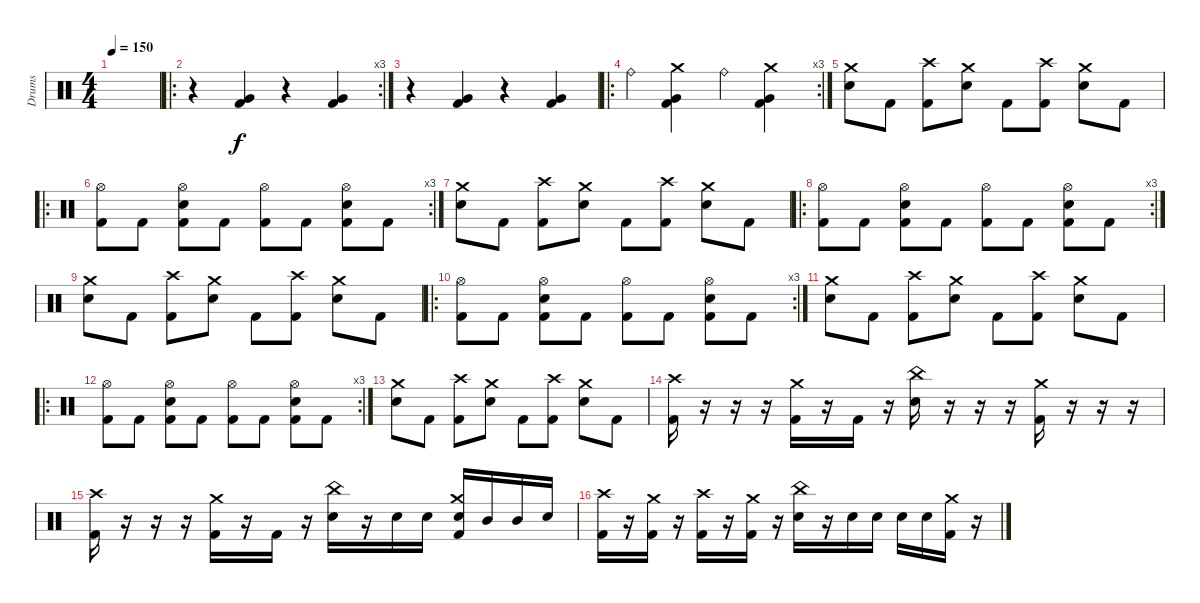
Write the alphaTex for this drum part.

\track ("Drums" "Drums") {instrument percussion}
\staff {score}
\articulation defaults
\ts (4 4)
\tempo 150
\clef neutral
\ks c
|
\ro
\rc 3
r.4 ("Very Low Tom (hit)" "Kick (hit) 2").4 r.4 ("Very Low Tom (hit)" "Kick (hit) 2").4 |
r.4 ("Very Low Tom (hit)" "Kick (hit) 2").4 r.4 ("Very Low Tom (hit)" "Kick (hit) 2").4 |
\ro
\rc 3 "Ride (bell)".4
("Crash medium (hit)" "Very Low Tom (hit)" "Kick (hit) 2").4 "Ride (bell)".4 ("Crash medium (hit)" "Very Low Tom (hit)" "Kick (hit) 2").4 |
("Crash medium (hit)" "Electric Snare (hit)").8 "Kick (hit) 2".8 ("Crash high (hit)" "Kick (hit) 2").8 ("Crash medium (hit)" "Electric Snare (hit)").8 "Kick (hit) 2".8 ("Crash high (hit)" "Kick (hit) 2").8 ("Crash medium (hit)" "Electric Snare (hit)").8 "Kick (hit) 2".8 |
\ro
\rc 3
("Hi-Hat (open)" "Kick (hit) 2").8 "Kick (hit) 2".8 ("Hi-Hat (open)" "Electric Snare (hit)" "Kick (hit) 2").8 "Kick (hit) 2".8 ("Hi-Hat (open)" "Kick (hit) 2").8 "Kick (hit) 2".8 ("Hi-Hat (open)" "Electric Snare (hit)" "Kick (hit) 2").8 "Kick (hit) 2".8 |
("Crash medium (hit)" "Electric Snare (hit)").8 "Kick (hit) 2".8 ("Crash high (hit)" "Kick (hit) 2").8 ("Crash medium (hit)" "Electric Snare (hit)").8 "Kick (hit) 2".8 ("Crash high (hit)" "Kick (hit) 2").8 ("Crash medium (hit)" "Electric Snare (hit)").8 "Kick (hit) 2".8 |
\ro
\rc 3
("Hi-Hat (open)" "Kick (hit) 2").8 "Kick (hit) 2".8 ("Hi-Hat (open)" "Electric Snare (hit)" "Kick (hit) 2").8 "Kick (hit) 2".8 ("Hi-Hat (open)" "Kick (hit) 2").8 "Kick (hit) 2".8 ("Hi-Hat (open)" "Electric Snare (hit)" "Kick (hit) 2").8 "Kick (hit) 2".8 |
("Crash medium (hit)" "Electric Snare (hit)").8 "Kick (hit) 2".8 ("Crash high (hit)" "Kick (hit) 2").8 ("Crash medium (hit)" "Electric Snare (hit)").8 "Kick (hit) 2".8 ("Crash high (hit)" "Kick (hit) 2").8 ("Crash medium (hit)" "Electric Snare (hit)").8 "Kick (hit) 2".8 |
\ro
\rc 3
("Hi-Hat (open)" "Kick (hit) 2").8 "Kick (hit) 2".8 ("Hi-Hat (open)" "Electric Snare (hit)" "Kick (hit) 2").8 "Kick (hit) 2".8 ("Hi-Hat (open)" "Kick (hit) 2").8 "Kick (hit) 2".8 ("Hi-Hat (open)" "Electric Snare (hit)" "Kick (hit) 2").8 "Kick (hit) 2".8 |
("Crash medium (hit)" "Electric Snare (hit)").8 "Kick (hit) 2".8 ("Crash high (hit)" "Kick (hit) 2").8 ("Crash medium (hit)" "Electric Snare (hit)").8 "Kick (hit) 2".8 ("Crash high (hit)" "Kick (hit) 2").8 ("Crash medium (hit)" "Electric Snare (hit)").8 "Kick (hit) 2".8 |
\ro
\rc 3
("Hi-Hat (open)" "Kick (hit) 2").8 "Kick (hit) 2".8 ("Hi-Hat (open)" "Electric Snare (hit)" "Kick (hit) 2").8 "Kick (hit) 2".8 ("Hi-Hat (open)" "Kick (hit) 2").8 "Kick (hit) 2".8 ("Hi-Hat (open)" "Electric Snare (hit)" "Kick (hit) 2").8 "Kick (hit) 2".8 |
("Crash medium (hit)" "Electric Snare (hit)").8 "Kick (hit) 2".8 ("Crash high (hit)" "Kick (hit) 2").8 ("Crash medium (hit)" "Electric Snare (hit)").8 "Kick (hit) 2".8 ("Crash high (hit)" "Kick (hit) 2").8 ("Crash medium (hit)" "Electric Snare (hit)").8 "Kick (hit) 2".8 |
("Crash high (hit)" "Kick (hit) 2").16 r.16 r.16 r.16 ("Crash medium (hit)" "Kick (hit) 2").16 r.16 "Kick (hit) 2".16 r.16 ("China (hit)" "Electric Snare (hit)").16 r.16 r.16 r.16 ("Crash medium (hit)" "Kick (hit) 2").16 r.16 r.16 r.16 |
("Crash high (hit)" "Kick (hit) 2").16 r.16 r.16 r.16 ("Crash medium (hit)" "Kick (hit) 2").16 r.16 "Kick (hit) 2".16 r.16 ("China (hit)" "Electric Snare (hit)").16 r.16 "Electric Snare (hit)".16 "Electric Snare (hit)".16 ("Crash medium (hit)" "Electric Snare (hit)" "Kick (hit) 2").16 "Mid Tom (hit)".16 "Mid Tom (hit)".16 "Electric Snare (hit)".16 |
("Crash high (hit)" "Kick (hit) 2").16 r.16 ("Crash medium (hit)" "Kick (hit) 2").16 r.16 ("Crash high (hit)" "Kick (hit) 2").16 r.16 ("Crash medium (hit)" "Kick (hit) 2").16 r.16 ("China (hit)" "Electric Snare (hit)").16 r.16 "Electric Snare (hit)".16 "Electric Snare (hit)".16 "Electric Snare (hit)".16 "Electric Snare (hit)".16 ("Crash medium (hit)" "Kick (hit) 2").16 r.16
